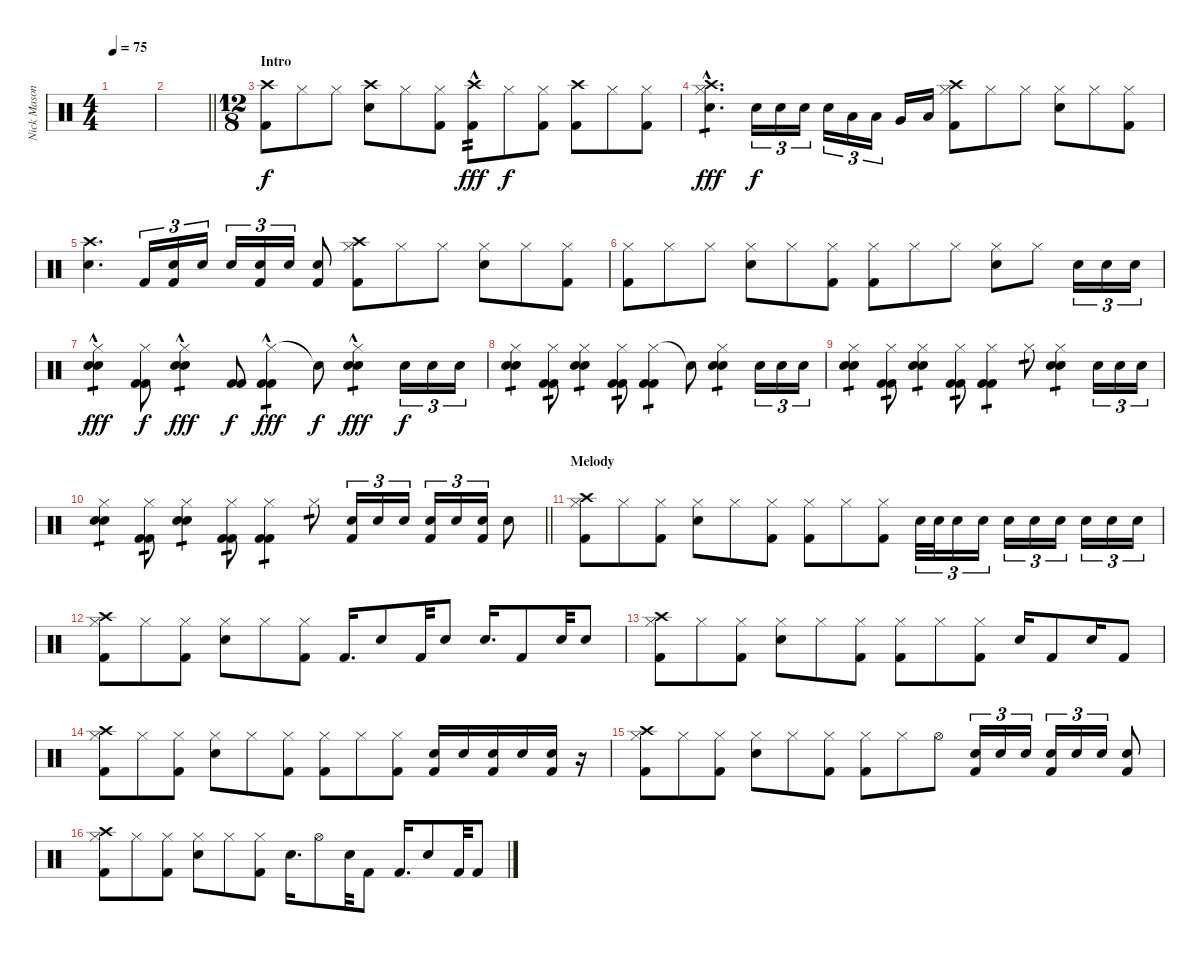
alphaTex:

\track ("Nick Mason (Drums)" "Nick Mason") {instrument percussion}
\staff {score}
\articulation defaults
\ts (4 4)
\tempo 75
\clef neutral
\ks c
|
\barLineRight lightlight
|
\ts (12 8)
\section ("" "Intro")
("Crash high (hit)" "Kick (hit) 2").8 "Hi-Hat (closed)".8 "Hi-Hat (closed)".8 ("Crash high (hit)" "Snare (hit) 2").8 "Hi-Hat (closed)".8 ("Hi-Hat (closed)" "Kick (hit) 2").8 ("Crash high (hit)" "Kick (hit) 2"{hac}).8{tp 2 dy fff} "Hi-Hat (closed)".8{dy f} ("Hi-Hat (closed)" "Kick (hit) 2").8 ("Crash high (hit)" "Kick (hit) 2").8 "Hi-Hat (closed)".8 ("Hi-Hat (closed)" "Kick (hit) 2").8 |
("Crash high (hit)" "Hi-Hat (closed)"{hac} "Snare (hit) 2").4{d tp 1 dy fff} "Snare (hit) 2".16{tu (3 2) dy f} "Snare (hit) 2".16{tu (3 2)} "Snare (hit) 2".16{tu (3 2) beam splitsecondary} "Snare (hit) 2".16{tu (3 2)} "Low Tom (hit)".16{tu (3 2)} "Low Tom (hit)".16{tu (3 2) beam splitsecondary} "Very Low Tom (hit)".16 "Low Floor Tom (hit)".16 ("Crash high (hit)" "Hi-Hat (closed)" "Kick (hit) 2").8 "Hi-Hat (closed)".8 "Hi-Hat (closed)".8 ("Hi-Hat (closed)" "Snare (hit) 2").8 "Hi-Hat (closed)".8 ("Hi-Hat (closed)" "Kick (hit) 2").8 |
("Crash high (hit)" "Snare (hit) 2").4{d} "Kick (hit) 2".16{tu (3 2)} ("Snare (hit) 2" "Kick (hit) 2").16{tu (3 2)} "Snare (hit) 2".16{tu (3 2) beam splitsecondary} "Snare (hit) 2".16{tu (3 2)} ("Snare (hit) 2" "Kick (hit) 2").16{tu (3 2)} "Snare (hit) 2".16{tu (3 2)} ("Snare (hit) 2" "Kick (hit) 2").8 ("Crash high (hit)" "Hi-Hat (closed)" "Kick (hit) 2").8 "Hi-Hat (closed)".8 "Hi-Hat (closed)".8 ("Hi-Hat (closed)" "Snare (hit) 2").8 "Hi-Hat (closed)".8 ("Hi-Hat (closed)" "Kick (hit) 2").8 |
("Hi-Hat (closed)" "Kick (hit) 2").8 "Hi-Hat (closed)".8 "Hi-Hat (closed)".8 ("Hi-Hat (closed)" "Snare (hit) 2").8 "Hi-Hat (closed)".8 ("Hi-Hat (closed)" "Kick (hit) 2").8 ("Hi-Hat (closed)" "Kick (hit) 2").8 "Hi-Hat (closed)".8 "Hi-Hat (closed)".8 ("Hi-Hat (closed)" "Snare (hit) 2").8 "Hi-Hat (closed)".8 "Snare (hit) 2".16{tu (3 2)} "Snare (hit) 2".16{tu (3 2)} "Snare (hit) 2".16{tu (3 2)} |
("Hi-Hat (closed)"{hac} "Snare (hit) 2" "Snare (hit) 2").4{tp 1 dy fff} ("Hi-Hat (closed)" "Kick (hit) 2" "Kick (hit) 2").8{dy f} ("Hi-Hat (closed)"{hac} "Snare (hit) 2" "Snare (hit) 2").4{tp 1 dy fff} ("Kick (hit) 2" "Kick (hit) 2").8{dy f} ("Hi-Hat (closed)"{hac} "Kick (hit) 2" "Kick (hit) 2").4{tp 1 dy fff} "Snare (hit)"{t}.8{dy f} ("Hi-Hat (closed)"{hac} "Snare (hit) 2" "Snare (hit) 2").4{tp 1 dy fff} "Snare (hit) 2".16{tu (3 2) dy f} "Snare (hit) 2".16{tu (3 2)} "Snare (hit) 2".16{tu (3 2)} |
("Hi-Hat (closed)" "Snare (hit) 2" "Snare (hit) 2").4{tp 1} ("Hi-Hat (closed)" "Kick (hit) 2" "Kick (hit) 2").8{tp 1} ("Hi-Hat (closed)" "Snare (hit) 2" "Snare (hit) 2").4{tp 1} ("Hi-Hat (closed)" "Kick (hit) 2" "Kick (hit) 2").8{tp 1} ("Hi-Hat (closed)" "Kick (hit) 2" "Kick (hit) 2").4{tp 1} "Snare (hit)"{t}.8 ("Hi-Hat (closed)" "Snare (hit) 2" "Snare (hit) 2").4{tp 1} "Snare (hit) 2".16{tu (3 2)} "Snare (hit) 2".16{tu (3 2)} "Snare (hit) 2".16{tu (3 2)} |
("Hi-Hat (closed)" "Snare (hit) 2" "Snare (hit) 2").4{tp 1} ("Hi-Hat (closed)" "Kick (hit) 2" "Kick (hit) 2").8{tp 1} ("Hi-Hat (closed)" "Snare (hit) 2" "Snare (hit) 2").4{tp 1} ("Hi-Hat (closed)" "Kick (hit) 2" "Kick (hit) 2").8{tp 1} ("Hi-Hat (closed)" "Kick (hit) 2" "Kick (hit) 2").4{tp 1} "Hi-Hat (closed)".8{tp 1} ("Hi-Hat (closed)" "Snare (hit) 2" "Snare (hit) 2").4{tp 1} "Snare (hit) 2".16{tu (3 2)} "Snare (hit) 2".16{tu (3 2)} "Snare (hit) 2".16{tu (3 2)} |
\barLineRight lightlight
("Hi-Hat (closed)" "Snare (hit) 2" "Snare (hit) 2").4{tp 1} ("Hi-Hat (closed)" "Kick (hit) 2" "Kick (hit) 2").8{tp 1} ("Hi-Hat (closed)" "Snare (hit) 2" "Snare (hit) 2").4{tp 1} ("Hi-Hat (closed)" "Kick (hit) 2" "Kick (hit) 2").8{tp 1} ("Hi-Hat (closed)" "Kick (hit) 2" "Kick (hit) 2").4{tp 1} "Hi-Hat (closed)".8{tp 1} ("Snare (hit) 2" "Kick (hit) 2").16{tu (3 2)} "Snare (hit) 2".16{tu (3 2)} "Snare (hit) 2".16{tu (3 2) beam splitsecondary} ("Snare (hit) 2" "Kick (hit) 2").16{tu (3 2)} "Snare (hit) 2".16{tu (3 2)} ("Snare (hit) 2" "Kick (hit) 2").16{tu (3 2)} "Snare (hit) 2".8 |
\section ("" "Melody")
("Crash high (hit)" "Hi-Hat (closed)" "Kick (hit) 2").8 "Hi-Hat (closed)".8 ("Hi-Hat (closed)" "Kick (hit) 2").8 ("Hi-Hat (closed)" "Snare (hit) 2").8 "Hi-Hat (closed)".8 ("Hi-Hat (closed)" "Kick (hit) 2").8 ("Hi-Hat (closed)" "Kick (hit) 2").8 "Hi-Hat (closed)".8 ("Hi-Hat (closed)" "Kick (hit) 2").8 "Snare (hit) 2".32{tu (3 2)} "Snare (hit) 2".32{tu (3 2)} "Snare (hit) 2".16{tu (3 2)} "Snare (hit) 2".16{tu (3 2) beam splitsecondary} "Snare (hit) 2".16{tu (3 2)} "Snare (hit) 2".16{tu (3 2)} "Snare (hit) 2".16{tu (3 2) beam splitsecondary} "Snare (hit) 2".16{tu (3 2)} "Snare (hit) 2".16{tu (3 2)} "Snare (hit) 2".16{tu (3 2)} |
("Crash high (hit)" "Hi-Hat (closed)" "Kick (hit) 2").8 "Hi-Hat (closed)".8 ("Hi-Hat (closed)" "Kick (hit) 2").8 ("Hi-Hat (closed)" "Snare (hit) 2").8 "Hi-Hat (closed)".8 ("Hi-Hat (closed)" "Kick (hit) 2").8 "Kick (hit) 2".16{d} "Snare (hit) 2".8 "Kick (hit) 2".32 "Snare (hit) 2".8 "Snare (hit) 2".16{d} "Kick (hit) 2".8 "Snare (hit) 2".32 "Snare (hit) 2".8 |
("Crash high (hit)" "Hi-Hat (closed)" "Kick (hit) 2").8 "Hi-Hat (closed)".8 ("Hi-Hat (closed)" "Kick (hit) 2").8 ("Hi-Hat (closed)" "Snare (hit) 2").8 "Hi-Hat (closed)".8 ("Hi-Hat (closed)" "Kick (hit) 2").8 ("Hi-Hat (closed)" "Kick (hit) 2").8 "Hi-Hat (closed)".8 ("Hi-Hat (closed)" "Kick (hit) 2").8 "Snare (hit) 2".16 "Kick (hit) 2".8 "Snare (hit) 2".16 "Kick (hit) 2".8 |
("Crash high (hit)" "Hi-Hat (closed)" "Kick (hit) 2").8 "Hi-Hat (closed)".8 ("Hi-Hat (closed)" "Kick (hit) 2").8 ("Hi-Hat (closed)" "Snare (hit) 2").8 "Hi-Hat (closed)".8 ("Hi-Hat (closed)" "Kick (hit) 2").8 ("Hi-Hat (closed)" "Kick (hit) 2").8 "Hi-Hat (closed)".8 ("Hi-Hat (closed)" "Kick (hit) 2").8 ("Snare (hit) 2" "Kick (hit) 2").16 "Snare (hit) 2".16 ("Snare (hit) 2" "Kick (hit) 2").16 "Snare (hit) 2".16 ("Snare (hit) 2" "Kick (hit) 2").16 r.16 |
("Crash high (hit)" "Hi-Hat (closed)" "Kick (hit) 2").8 "Hi-Hat (closed)".8 ("Hi-Hat (closed)" "Kick (hit) 2").8 ("Hi-Hat (closed)" "Snare (hit) 2").8 "Hi-Hat (closed)".8 ("Hi-Hat (closed)" "Kick (hit) 2").8 ("Hi-Hat (closed)" "Kick (hit) 2").8 "Hi-Hat (closed)".8 "Hi-Hat (open)".8 ("Snare (hit) 2" "Kick (hit) 2").16{tu (3 2)} "Snare (hit) 2".16{tu (3 2)} "Snare (hit) 2".16{tu (3 2) beam splitsecondary} ("Snare (hit) 2" "Kick (hit) 2").16{tu (3 2)} "Snare (hit) 2".16{tu (3 2)} "Snare (hit) 2".16{tu (3 2)} ("Snare (hit) 2" "Kick (hit) 2").8 |
("Crash high (hit)" "Hi-Hat (closed)" "Kick (hit) 2").8 "Hi-Hat (closed)".8 ("Hi-Hat (closed)" "Kick (hit) 2").8 ("Hi-Hat (closed)" "Snare (hit) 2").8 "Hi-Hat (closed)".8 ("Hi-Hat (closed)" "Kick (hit) 2").8 "Snare (hit) 2".16{d} "Hi-Hat (open)".8 "Snare (hit) 2".32 "Kick (hit) 2".8 "Kick (hit) 2".16{d} "Snare (hit) 2".8 "Kick (hit) 2".32 "Kick (hit) 2".8
